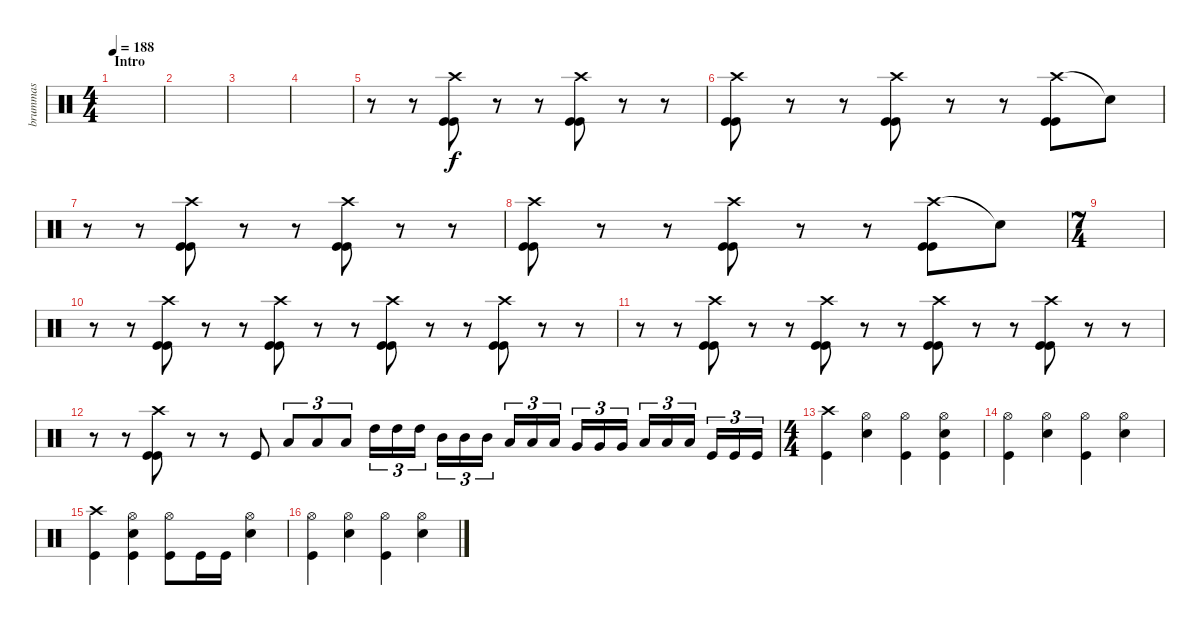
\track ("brummas" "brummas") {instrument percussion}
\staff {score}
\articulation defaults
\ts (4 4)
\section ("" "Intro")
\tempo 188
\clef neutral
\ks c
|
|
|
|
r.8 r.8 ("Crash high (hit)" "Kick (hit)" "Kick (hit)").8 r.8 r.8 ("Crash high (hit)" "Kick (hit)" "Kick (hit)").8 r.8 r.8 |
("Crash high (hit)" "Kick (hit)" "Kick (hit)").8 r.8 r.8 ("Crash high (hit)" "Kick (hit)" "Kick (hit)").8 r.8 r.8 ("Crash high (hit)" "Kick (hit)" "Kick (hit)").8 "Snare (hit)"{t}.8 |
r.8 r.8 ("Crash high (hit)" "Kick (hit)" "Kick (hit)").8 r.8 r.8 ("Crash high (hit)" "Kick (hit)" "Kick (hit)").8 r.8 r.8 |
("Crash high (hit)" "Kick (hit)" "Kick (hit)").8 r.8 r.8 ("Crash high (hit)" "Kick (hit)" "Kick (hit)").8 r.8 r.8 ("Crash high (hit)" "Kick (hit)" "Kick (hit)").8 "Snare (hit)"{t}.8 |
\ts (7 4)
|
r.8 r.8 ("Crash high (hit)" "Kick (hit)" "Kick (hit)").8 r.8 r.8 ("Crash high (hit)" "Kick (hit)" "Kick (hit)").8 r.8 r.8 ("Crash high (hit)" "Kick (hit)" "Kick (hit)").8 r.8 r.8 ("Crash high (hit)" "Kick (hit)" "Kick (hit)").8 r.8 r.8 |
r.8 r.8 ("Crash high (hit)" "Kick (hit)" "Kick (hit)").8 r.8 r.8 ("Crash high (hit)" "Kick (hit)" "Kick (hit)").8 r.8 r.8 ("Crash high (hit)" "Kick (hit)" "Kick (hit)").8 r.8 r.8 ("Crash high (hit)" "Kick (hit)" "Kick (hit)").8 r.8 r.8 |
r.8 r.8 ("Crash high (hit)" "Kick (hit)" "Kick (hit)").8 r.8 r.8 "Kick (hit)".8 "Low Tom (hit)".8{tu (3 2)} "Low Tom (hit)".8{tu (3 2)} "Low Tom (hit)".8{tu (3 2)} "High Tom (hit)".16{tu (3 2)} "High Tom (hit)".16{tu (3 2)} "High Tom (hit)".16{tu (3 2)} "Mid Tom (hit)".16{tu (3 2)} "Mid Tom (hit)".16{tu (3 2)} "Mid Tom (hit)".16{tu (3 2)} "Low Tom (hit)".16{tu (3 2)} "Low Tom (hit)".16{tu (3 2)} "Low Tom (hit)".16{tu (3 2)} "Very Low Tom (hit)".16{tu (3 2)} "Very Low Tom (hit)".16{tu (3 2)} "Very Low Tom (hit)".16{tu (3 2)} "Low Floor Tom (hit)".16{tu (3 2)} "Low Floor Tom (hit)".16{tu (3 2)} "Low Floor Tom (hit)".16{tu (3 2)} "Kick (hit)".16{tu (3 2)} "Kick (hit)".16{tu (3 2)} "Kick (hit)".16{tu (3 2)} |
\ts (4 4)
("Crash high (hit)" "Kick (hit)").4 ("Hi-Hat (open)" "Snare (hit) 2").4 ("Hi-Hat (open)" "Kick (hit)").4 ("Hi-Hat (open)" "Snare (hit) 2" "Kick (hit)").4 |
("Hi-Hat (open)" "Kick (hit)").4 ("Hi-Hat (open)" "Snare (hit) 2").4 ("Hi-Hat (open)" "Kick (hit)").4 ("Hi-Hat (open)" "Snare (hit) 2").4 |
("Crash high (hit)" "Kick (hit)").4 ("Hi-Hat (open)" "Snare (hit) 2" "Kick (hit)").4 ("Hi-Hat (open)" "Kick (hit)").8 "Kick (hit)".16 "Kick (hit)".16 ("Hi-Hat (open)" "Snare (hit) 2").4 |
("Hi-Hat (open)" "Kick (hit)").4 ("Hi-Hat (open)" "Snare (hit) 2").4 ("Hi-Hat (open)" "Kick (hit)").4 ("Hi-Hat (open)" "Snare (hit) 2").4
